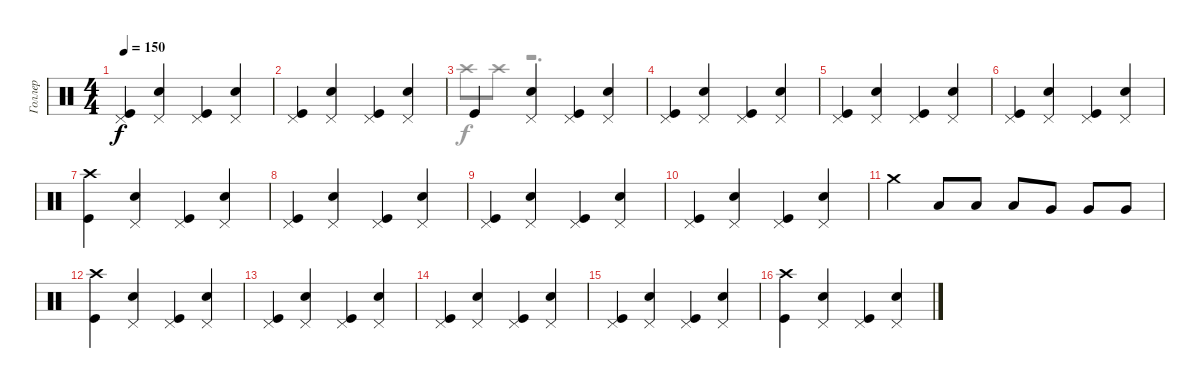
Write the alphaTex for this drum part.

\track ("Голлер" "Голлер") {instrument percussion}
\staff {score}
\articulation defaults
\voice
\ts (4 4)
\tempo 150
\clef neutral
\ks c
("Pedal Hi-Hat (hit)" "Kick (hit)").4{dy f} ("Pedal Hi-Hat (hit)" "Snare (hit) 2").4 ("Pedal Hi-Hat (hit)" "Kick (hit)").4 ("Pedal Hi-Hat (hit)" "Snare (hit) 2").4 |
("Pedal Hi-Hat (hit)" "Kick (hit)").4 ("Pedal Hi-Hat (hit)" "Snare (hit) 2").4 ("Pedal Hi-Hat (hit)" "Kick (hit)").4 ("Pedal Hi-Hat (hit)" "Snare (hit) 2").4 |
"Kick (hit)".4 ("Pedal Hi-Hat (hit)" "Snare (hit) 2").4 ("Pedal Hi-Hat (hit)" "Kick (hit)").4 ("Pedal Hi-Hat (hit)" "Snare (hit) 2").4 |
("Pedal Hi-Hat (hit)" "Kick (hit)").4 ("Pedal Hi-Hat (hit)" "Snare (hit) 2").4 ("Pedal Hi-Hat (hit)" "Kick (hit)").4 ("Pedal Hi-Hat (hit)" "Snare (hit) 2").4 |
("Pedal Hi-Hat (hit)" "Kick (hit)").4 ("Pedal Hi-Hat (hit)" "Snare (hit) 2").4 ("Pedal Hi-Hat (hit)" "Kick (hit)").4 ("Pedal Hi-Hat (hit)" "Snare (hit) 2").4 |
("Pedal Hi-Hat (hit)" "Kick (hit)").4 ("Pedal Hi-Hat (hit)" "Snare (hit) 2").4 ("Pedal Hi-Hat (hit)" "Kick (hit)").4 ("Pedal Hi-Hat (hit)" "Snare (hit) 2").4 |
("Crash high (hit)" "Kick (hit)").4 ("Pedal Hi-Hat (hit)" "Snare (hit) 2").4 ("Pedal Hi-Hat (hit)" "Kick (hit)").4 ("Pedal Hi-Hat (hit)" "Snare (hit) 2").4 |
("Pedal Hi-Hat (hit)" "Kick (hit)").4 ("Pedal Hi-Hat (hit)" "Snare (hit) 2").4 ("Pedal Hi-Hat (hit)" "Kick (hit)").4 ("Pedal Hi-Hat (hit)" "Snare (hit) 2").4 |
("Pedal Hi-Hat (hit)" "Kick (hit)").4 ("Pedal Hi-Hat (hit)" "Snare (hit) 2").4 ("Pedal Hi-Hat (hit)" "Kick (hit)").4 ("Pedal Hi-Hat (hit)" "Snare (hit) 2").4 |
("Pedal Hi-Hat (hit)" "Kick (hit)").4 ("Pedal Hi-Hat (hit)" "Snare (hit) 2").4 ("Pedal Hi-Hat (hit)" "Kick (hit)").4 ("Pedal Hi-Hat (hit)" "Snare (hit) 2").4 |
"Crash medium (hit)".4 "Low Floor Tom (hit)".8 "Low Floor Tom (hit)".8 "Low Floor Tom (hit)".8 "Very Low Tom (hit)".8 "Very Low Tom (hit)".8 "Very Low Tom (hit)".8 |
("Crash high (hit)" "Kick (hit)").4 ("Pedal Hi-Hat (hit)" "Snare (hit) 2").4 ("Pedal Hi-Hat (hit)" "Kick (hit)").4 ("Pedal Hi-Hat (hit)" "Snare (hit) 2").4 |
("Pedal Hi-Hat (hit)" "Kick (hit)").4 ("Pedal Hi-Hat (hit)" "Snare (hit) 2").4 ("Pedal Hi-Hat (hit)" "Kick (hit)").4 ("Pedal Hi-Hat (hit)" "Snare (hit) 2").4 |
("Pedal Hi-Hat (hit)" "Kick (hit)").4 ("Pedal Hi-Hat (hit)" "Snare (hit) 2").4 ("Pedal Hi-Hat (hit)" "Kick (hit)").4 ("Pedal Hi-Hat (hit)" "Snare (hit) 2").4 |
("Pedal Hi-Hat (hit)" "Kick (hit)").4 ("Pedal Hi-Hat (hit)" "Snare (hit) 2").4 ("Pedal Hi-Hat (hit)" "Kick (hit)").4 ("Pedal Hi-Hat (hit)" "Snare (hit) 2").4 |
("Crash high (hit)" "Kick (hit)").4 ("Pedal Hi-Hat (hit)" "Snare (hit) 2").4 ("Pedal Hi-Hat (hit)" "Kick (hit)").4 ("Pedal Hi-Hat (hit)" "Snare (hit) 2").4
\voice
\clef neutral
\ottava regular
\simile none
\ks c
|
|
"Crash high (hit)".8 "Crash high (hit)".8 r.2{d} |
|
|
|
|
|
|
|
|
|
|
|
|
